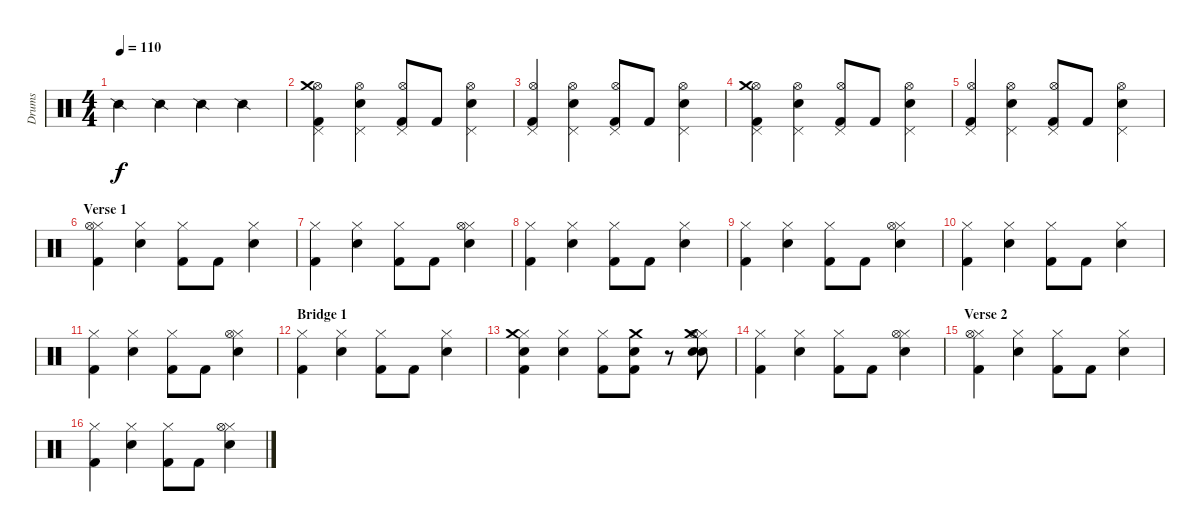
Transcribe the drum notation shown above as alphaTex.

\track ("Drums" "Drums") {instrument percussion}
\staff {score}
\articulation defaults
\ts (4 4)
\tempo 110
\clef neutral
\ks c "Snare (side stick) 2".4{dy f} "Snare (side stick) 2".4 "Snare (side stick) 2".4 "Snare (side stick) 2".4
|
("Kick (hit) 2" "Hi-Hat (open)" "Pedal Hi-Hat (hit)" "Crash medium (hit)").4 ("Snare (hit) 2" "Hi-Hat (open)" "Pedal Hi-Hat (hit)").4 ("Kick (hit) 2" "Hi-Hat (open)" "Pedal Hi-Hat (hit)").8 "Kick (hit) 2".8 ("Snare (hit) 2" "Hi-Hat (open)" "Pedal Hi-Hat (hit)").4 |
("Kick (hit) 2" "Hi-Hat (open)" "Pedal Hi-Hat (hit)").4 ("Snare (hit) 2" "Hi-Hat (open)" "Pedal Hi-Hat (hit)").4 ("Kick (hit) 2" "Hi-Hat (open)" "Pedal Hi-Hat (hit)").8 "Kick (hit) 2".8 ("Snare (hit) 2" "Hi-Hat (open)" "Pedal Hi-Hat (hit)").4 |
("Kick (hit) 2" "Hi-Hat (open)" "Pedal Hi-Hat (hit)" "Crash medium (hit)").4 ("Snare (hit) 2" "Hi-Hat (open)" "Pedal Hi-Hat (hit)").4 ("Kick (hit) 2" "Hi-Hat (open)" "Pedal Hi-Hat (hit)").8 "Kick (hit) 2".8 ("Snare (hit) 2" "Hi-Hat (open)" "Pedal Hi-Hat (hit)").4 |
("Kick (hit) 2" "Hi-Hat (open)" "Pedal Hi-Hat (hit)").4 ("Snare (hit) 2" "Hi-Hat (open)" "Pedal Hi-Hat (hit)").4 ("Kick (hit) 2" "Hi-Hat (open)" "Pedal Hi-Hat (hit)").8 "Kick (hit) 2".8 ("Snare (hit) 2" "Hi-Hat (open)" "Pedal Hi-Hat (hit)").4 |
\section ("" "Verse 1")
("Kick (hit) 2" "Hi-Hat (closed)" "Hi-Hat (open)").4 ("Snare (hit) 2" "Hi-Hat (closed)").4 ("Kick (hit) 2" "Hi-Hat (closed)").8 "Kick (hit) 2".8 ("Snare (hit) 2" "Hi-Hat (closed)").4 |
("Kick (hit) 2" "Hi-Hat (closed)").4 ("Snare (hit) 2" "Hi-Hat (closed)").4 ("Kick (hit) 2" "Hi-Hat (closed)").8 "Kick (hit) 2".8 ("Snare (hit) 2" "Hi-Hat (closed)" "Hi-Hat (open)").4 |
("Kick (hit) 2" "Hi-Hat (closed)").4 ("Snare (hit) 2" "Hi-Hat (closed)").4 ("Kick (hit) 2" "Hi-Hat (closed)").8 "Kick (hit) 2".8 ("Snare (hit) 2" "Hi-Hat (closed)").4 |
("Kick (hit) 2" "Hi-Hat (closed)").4 ("Snare (hit) 2" "Hi-Hat (closed)").4 ("Kick (hit) 2" "Hi-Hat (closed)").8 "Kick (hit) 2".8 ("Snare (hit) 2" "Hi-Hat (closed)" "Hi-Hat (open)").4 |
("Kick (hit) 2" "Hi-Hat (closed)").4 ("Snare (hit) 2" "Hi-Hat (closed)").4 ("Kick (hit) 2" "Hi-Hat (closed)").8 "Kick (hit) 2".8 ("Snare (hit) 2" "Hi-Hat (closed)").4 |
("Kick (hit) 2" "Hi-Hat (closed)").4 ("Snare (hit) 2" "Hi-Hat (closed)").4 ("Kick (hit) 2" "Hi-Hat (closed)").8 "Kick (hit) 2".8 ("Snare (hit) 2" "Hi-Hat (closed)" "Hi-Hat (open)").4 |
\section ("" "Bridge 1")
("Kick (hit) 2" "Hi-Hat (closed)").4 ("Snare (hit) 2" "Hi-Hat (closed)").4 ("Kick (hit) 2" "Hi-Hat (closed)").8 "Kick (hit) 2".8 ("Snare (hit) 2" "Hi-Hat (closed)").4 |
("Kick (hit) 2" "Hi-Hat (closed)" "Snare (hit) 2" "Crash medium (hit)").4 ("Snare (hit) 2" "Hi-Hat (closed)").4 ("Kick (hit) 2" "Hi-Hat (closed)").8 ("Kick (hit) 2" "Snare (hit) 2" "Crash medium (hit)").8 r.8 ("Snare (hit) 2" "Hi-Hat (closed)" "Snare (hit) 2" "Crash medium (hit)" "Hi-Hat (open)").8 |
("Kick (hit) 2" "Hi-Hat (closed)").4 ("Snare (hit) 2" "Hi-Hat (closed)").4 ("Kick (hit) 2" "Hi-Hat (closed)").8 "Kick (hit) 2".8 ("Snare (hit) 2" "Hi-Hat (closed)" "Hi-Hat (open)").4 |
\section ("" "Verse 2")
("Kick (hit) 2" "Hi-Hat (closed)" "Hi-Hat (open)").4 ("Snare (hit) 2" "Hi-Hat (closed)").4 ("Kick (hit) 2" "Hi-Hat (closed)").8 "Kick (hit) 2".8 ("Snare (hit) 2" "Hi-Hat (closed)").4 |
("Kick (hit) 2" "Hi-Hat (closed)").4 ("Snare (hit) 2" "Hi-Hat (closed)").4 ("Kick (hit) 2" "Hi-Hat (closed)").8 "Kick (hit) 2".8 ("Snare (hit) 2" "Hi-Hat (closed)" "Hi-Hat (open)").4
